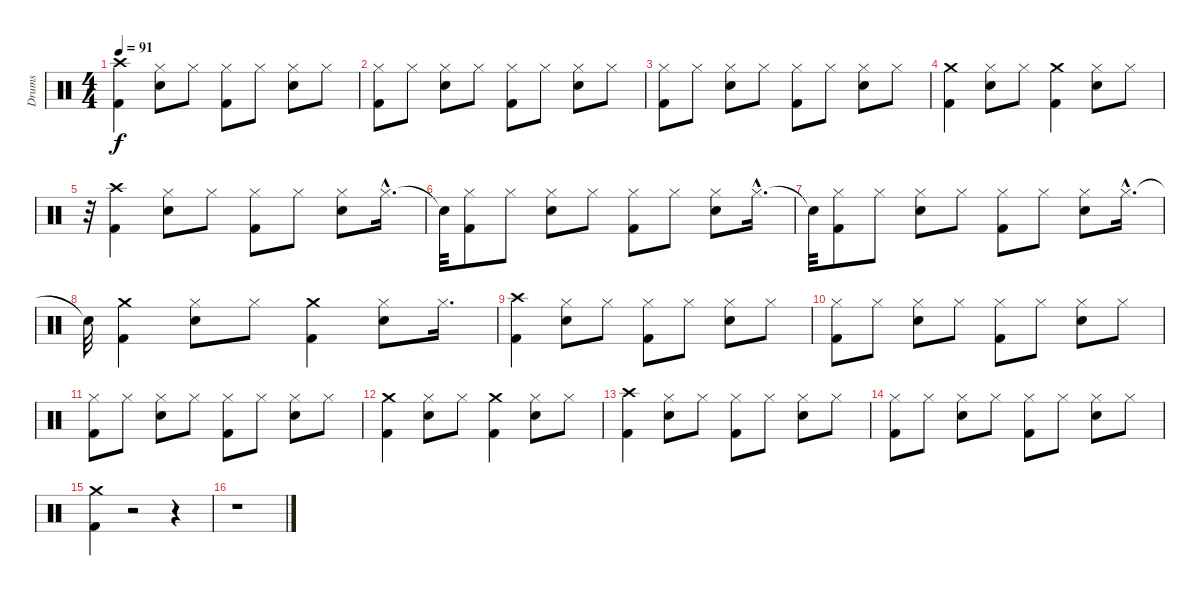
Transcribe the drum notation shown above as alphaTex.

\track ("Drums" "Drums") {instrument percussion}
\staff {score}
\articulation defaults
\ts (4 4)
\tempo 91
\clef neutral
\ks c
("Kick (hit) 2" "Crash high (hit)").4{dy f} ("Hi-Hat (closed)" "Electric Snare (hit)").8 "Hi-Hat (closed)".8 ("Hi-Hat (closed)" "Kick (hit) 2").8 "Hi-Hat (closed)".8 ("Hi-Hat (closed)" "Electric Snare (hit)").8 "Hi-Hat (closed)".8 |
("Hi-Hat (closed)" "Kick (hit) 2").8 "Hi-Hat (closed)".8 ("Hi-Hat (closed)" "Electric Snare (hit)").8 "Hi-Hat (closed)".8 ("Hi-Hat (closed)" "Kick (hit) 2").8 "Hi-Hat (closed)".8 ("Hi-Hat (closed)" "Electric Snare (hit)").8 "Hi-Hat (closed)".8 |
("Hi-Hat (closed)" "Kick (hit) 2").8 "Hi-Hat (closed)".8 ("Hi-Hat (closed)" "Electric Snare (hit)").8 "Hi-Hat (closed)".8 ("Hi-Hat (closed)" "Kick (hit) 2").8 "Hi-Hat (closed)".8 ("Hi-Hat (closed)" "Electric Snare (hit)").8 "Hi-Hat (closed)".8 |
("Crash medium (hit)" "Kick (hit) 2").4 ("Hi-Hat (closed)" "Electric Snare (hit)").8 "Hi-Hat (closed)".8 ("Crash medium (hit)" "Kick (hit) 2").4 ("Hi-Hat (closed)" "Electric Snare (hit)").8 "Hi-Hat (closed)".8 |
r.32 ("Kick (hit) 2" "Crash high (hit)").4 ("Hi-Hat (closed)" "Electric Snare (hit)").8 "Hi-Hat (closed)".8 ("Hi-Hat (closed)" "Kick (hit) 2").8 "Hi-Hat (closed)".8 ("Hi-Hat (closed)" "Electric Snare (hit)").8 "Hi-Hat (closed)"{hac}.16{d} |
"Snare (hit)"{t}.32 ("Hi-Hat (closed)" "Kick (hit) 2").8 "Hi-Hat (closed)".8 ("Hi-Hat (closed)" "Electric Snare (hit)").8 "Hi-Hat (closed)".8 ("Hi-Hat (closed)" "Kick (hit) 2").8 "Hi-Hat (closed)".8 ("Hi-Hat (closed)" "Electric Snare (hit)").8 "Hi-Hat (closed)"{hac}.16{d} |
"Snare (hit)"{t}.32 ("Hi-Hat (closed)" "Kick (hit) 2").8 "Hi-Hat (closed)".8 ("Hi-Hat (closed)" "Electric Snare (hit)").8 "Hi-Hat (closed)".8 ("Hi-Hat (closed)" "Kick (hit) 2").8 "Hi-Hat (closed)".8 ("Hi-Hat (closed)" "Electric Snare (hit)").8 "Hi-Hat (closed)"{hac}.16{d} |
"Snare (hit)"{t}.32 ("Crash medium (hit)" "Kick (hit) 2").4 ("Hi-Hat (closed)" "Electric Snare (hit)").8 "Hi-Hat (closed)".8 ("Crash medium (hit)" "Kick (hit) 2").4 ("Hi-Hat (closed)" "Electric Snare (hit)").8 "Hi-Hat (closed)".16{d} |
("Kick (hit) 2" "Crash high (hit)").4 ("Hi-Hat (closed)" "Electric Snare (hit)").8 "Hi-Hat (closed)".8 ("Hi-Hat (closed)" "Kick (hit) 2").8 "Hi-Hat (closed)".8 ("Hi-Hat (closed)" "Electric Snare (hit)").8 "Hi-Hat (closed)".8 |
("Hi-Hat (closed)" "Kick (hit) 2").8 "Hi-Hat (closed)".8 ("Hi-Hat (closed)" "Electric Snare (hit)").8 "Hi-Hat (closed)".8 ("Hi-Hat (closed)" "Kick (hit) 2").8 "Hi-Hat (closed)".8 ("Hi-Hat (closed)" "Electric Snare (hit)").8 "Hi-Hat (closed)".8 |
("Hi-Hat (closed)" "Kick (hit) 2").8 "Hi-Hat (closed)".8 ("Hi-Hat (closed)" "Electric Snare (hit)").8 "Hi-Hat (closed)".8 ("Hi-Hat (closed)" "Kick (hit) 2").8 "Hi-Hat (closed)".8 ("Hi-Hat (closed)" "Electric Snare (hit)").8 "Hi-Hat (closed)".8 |
("Crash medium (hit)" "Kick (hit) 2").4 ("Hi-Hat (closed)" "Electric Snare (hit)").8 "Hi-Hat (closed)".8 ("Crash medium (hit)" "Kick (hit) 2").4 ("Hi-Hat (closed)" "Electric Snare (hit)").8 "Hi-Hat (closed)".8 |
("Kick (hit) 2" "Crash high (hit)").4 ("Hi-Hat (closed)" "Electric Snare (hit)").8 "Hi-Hat (closed)".8 ("Hi-Hat (closed)" "Kick (hit) 2").8 "Hi-Hat (closed)".8 ("Hi-Hat (closed)" "Electric Snare (hit)").8 "Hi-Hat (closed)".8 |
("Hi-Hat (closed)" "Kick (hit) 2").8 "Hi-Hat (closed)".8 ("Hi-Hat (closed)" "Electric Snare (hit)").8 "Hi-Hat (closed)".8 ("Hi-Hat (closed)" "Kick (hit) 2").8 "Hi-Hat (closed)".8 ("Hi-Hat (closed)" "Electric Snare (hit)").8 "Hi-Hat (closed)".8 |
("Kick (hit) 2" "Crash medium (hit)").4 r.2 r.4 |
r.1
